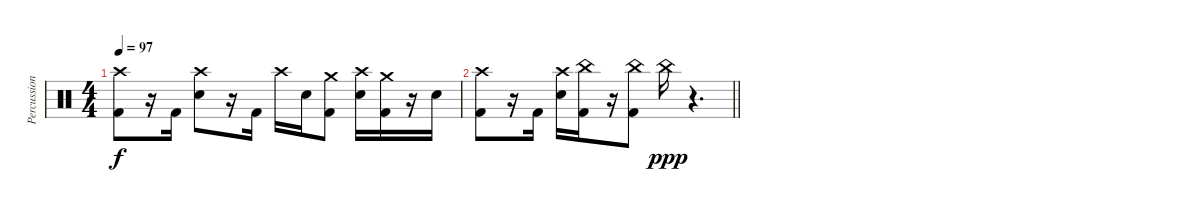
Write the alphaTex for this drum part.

\track ("Percussions" "Percussion") {instrument percussion}
\staff {score}
\articulation defaults
\ts (4 4)
\tempo 97
\clef neutral
\ks c
("Crash high (hit)" "Kick (hit) 2").8{dy f} r.16 "Kick (hit) 2".16 ("Crash high (hit)" "Snare (hit) 2").8 r.16 "Kick (hit) 2".16 "Crash high (hit)".16 "Snare (hit) 2".16 ("Crash medium (hit)" "Kick (hit) 2").8 ("Crash high (hit)" "Snare (hit) 2").16 ("Crash medium (hit)" "Kick (hit) 2").16 r.16 "Snare (hit) 2".16 |
\barLineRight lightlight
("Crash high (hit)" "Kick (hit) 2").8 r.16 "Kick (hit) 2".16 ("Crash high (hit)" "Snare (hit) 2").16 ("China (hit)" "Kick (hit) 2").16 r.16 ("China (hit)" "Kick (hit) 2").8 "China (hit)".16{dy ppp} r.4{d}
